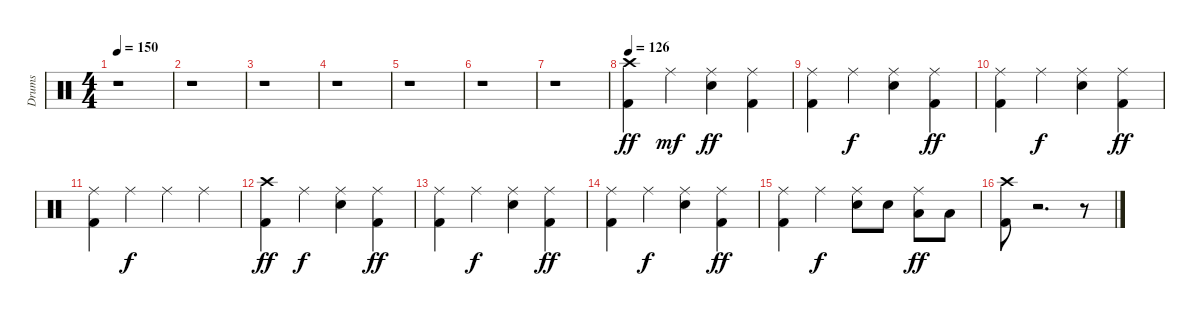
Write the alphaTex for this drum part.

\track ("Drums" "Drums") {instrument percussion}
\staff {score}
\articulation defaults
\ts (4 4)
\tempo 150
\clef neutral
\ks c
r.1{dy ff} |
r.1 |
r.1 |
r.1 |
r.1 |
r.1 |
r.1 |
\tempo 126
("Kick (hit) 2" "Crash high (hit)").4 "Ride (middle)".4{dy mf} ("Snare (hit) 2" "Ride (middle)").4{dy ff} ("Kick (hit) 2" "Ride (middle)").4 |
("Kick (hit) 2" "Ride (middle)").4 "Ride (middle)".4{dy f} ("Snare (hit) 2" "Ride (middle)").4 ("Kick (hit) 2" "Ride (middle)").4{dy ff} |
("Kick (hit) 2" "Ride (middle)").4 "Ride (middle)".4{dy f} ("Snare (hit) 2" "Ride (middle)").4 ("Kick (hit) 2" "Ride (middle)").4{dy ff} |
("Kick (hit) 2" "Ride (middle)").4 "Ride (middle)".4{dy f} "Ride (middle)".4 "Ride (middle)".4 |
("Kick (hit) 2" "Crash high (hit)").4{dy ff} "Ride (middle)".4{dy f} ("Snare (hit) 2" "Ride (middle)").4 ("Kick (hit) 2" "Ride (middle)").4{dy ff} |
("Kick (hit) 2" "Ride (middle)").4 "Ride (middle)".4{dy f} ("Snare (hit) 2" "Ride (middle)").4 ("Kick (hit) 2" "Ride (middle)").4{dy ff} |
("Kick (hit) 2" "Ride (middle)").4 "Ride (middle)".4{dy f} ("Snare (hit) 2" "Ride (middle)").4 ("Kick (hit) 2" "Ride (middle)").4{dy ff} |
("Kick (hit) 2" "Ride (middle)").4 "Ride (middle)".4{dy f} ("Snare (hit) 2" "Ride (middle)").8 "Snare (hit) 2".8 ("Low Tom (hit)" "Ride (middle)").8{dy ff} "Low Tom (hit)".8 |
("Kick (hit) 2" "Crash high (hit)").8 r.2{d} r.8
